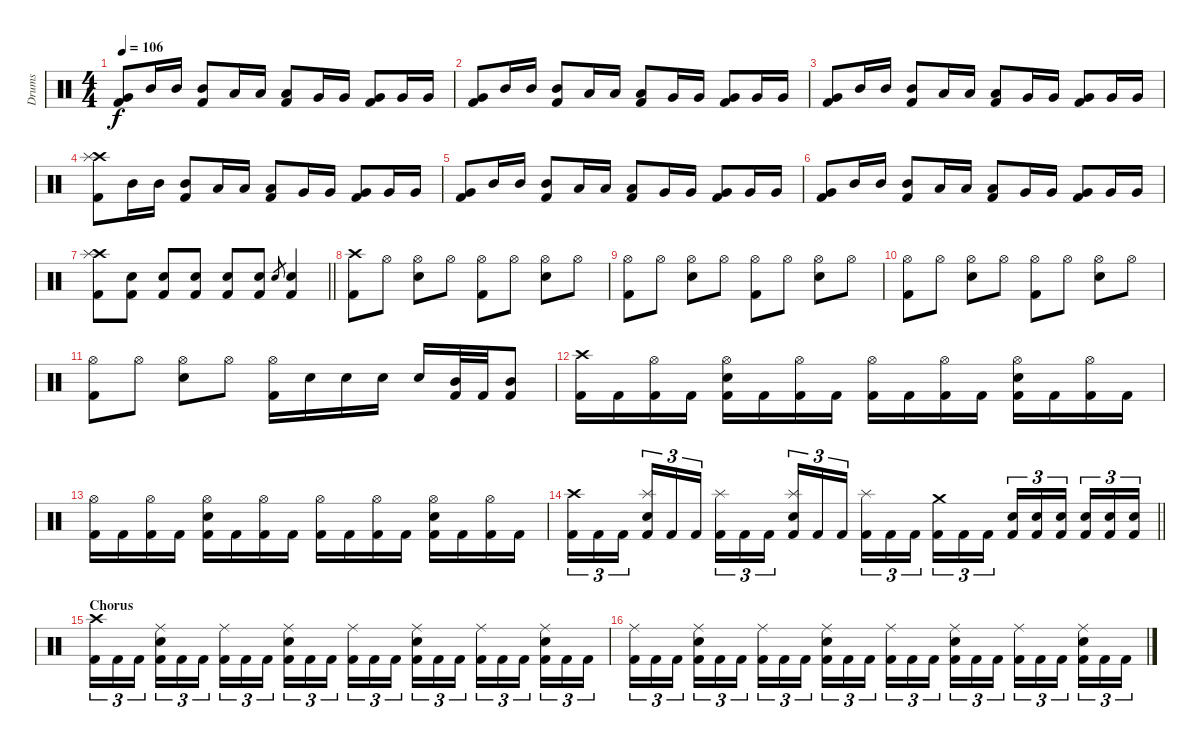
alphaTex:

\track ("Drums" "Drums") {instrument percussion}
\staff {score}
\articulation defaults
\ts (4 4)
\tempo 106
\clef neutral
\ks c
("Very Low Tom (hit)" "Kick (hit) 2").8{dy f} "Mid Tom (hit)".16 "Mid Tom (hit)".16 ("Mid Tom (hit)" "Kick (hit) 2").8 "Low Tom (hit)".16 "Low Tom (hit)".16 ("Low Tom (hit)" "Kick (hit) 2").8 "Very Low Tom (hit)".16 "Very Low Tom (hit)".16 ("Very Low Tom (hit)" "Kick (hit) 2").8 "Very Low Tom (hit)".16 "Very Low Tom (hit)".16 |
("Very Low Tom (hit)" "Kick (hit) 2").8 "Mid Tom (hit)".16 "Mid Tom (hit)".16 ("Mid Tom (hit)" "Kick (hit) 2").8 "Low Tom (hit)".16 "Low Tom (hit)".16 ("Low Tom (hit)" "Kick (hit) 2").8 "Very Low Tom (hit)".16 "Very Low Tom (hit)".16 ("Very Low Tom (hit)" "Kick (hit) 2").8 "Very Low Tom (hit)".16 "Very Low Tom (hit)".16 |
("Very Low Tom (hit)" "Kick (hit) 2").8 "Mid Tom (hit)".16 "Mid Tom (hit)".16 ("Mid Tom (hit)" "Kick (hit) 2").8 "Low Tom (hit)".16 "Low Tom (hit)".16 ("Low Tom (hit)" "Kick (hit) 2").8 "Very Low Tom (hit)".16 "Very Low Tom (hit)".16 ("Very Low Tom (hit)" "Kick (hit) 2").8 "Very Low Tom (hit)".16 "Very Low Tom (hit)".16 |
("Crash high (hit)" "Splash (hit)" "Kick (hit) 2").8 "Mid Tom (hit)".16 "Mid Tom (hit)".16 ("Mid Tom (hit)" "Kick (hit) 2").8 "Low Tom (hit)".16 "Low Tom (hit)".16 ("Low Tom (hit)" "Kick (hit) 2").8 "Very Low Tom (hit)".16 "Very Low Tom (hit)".16 ("Very Low Tom (hit)" "Kick (hit) 2").8 "Very Low Tom (hit)".16 "Very Low Tom (hit)".16 |
("Very Low Tom (hit)" "Kick (hit) 2").8 "Mid Tom (hit)".16 "Mid Tom (hit)".16 ("Mid Tom (hit)" "Kick (hit) 2").8 "Low Tom (hit)".16 "Low Tom (hit)".16 ("Low Tom (hit)" "Kick (hit) 2").8 "Very Low Tom (hit)".16 "Very Low Tom (hit)".16 ("Very Low Tom (hit)" "Kick (hit) 2").8 "Very Low Tom (hit)".16 "Very Low Tom (hit)".16 |
("Very Low Tom (hit)" "Kick (hit) 2").8 "Mid Tom (hit)".16 "Mid Tom (hit)".16 ("Mid Tom (hit)" "Kick (hit) 2").8 "Low Tom (hit)".16 "Low Tom (hit)".16 ("Low Tom (hit)" "Kick (hit) 2").8 "Very Low Tom (hit)".16 "Very Low Tom (hit)".16 ("Very Low Tom (hit)" "Kick (hit) 2").8 "Very Low Tom (hit)".16 "Very Low Tom (hit)".16 |
\barLineRight lightlight
("Crash high (hit)" "Splash (hit)" "Kick (hit) 2").8 ("Electric Snare (hit)" "Kick (hit) 2").8 ("Electric Snare (hit)" "Kick (hit) 2").8 ("Electric Snare (hit)" "Kick (hit) 2").8 ("Electric Snare (hit)" "Kick (hit) 2").8 ("Electric Snare (hit)" "Kick (hit) 2").8 "Electric Snare (hit)".8{gr} ("Electric Snare (hit)" "Kick (hit) 2").4 |
\section ("" "")
("Crash high (hit)" "Kick (hit) 2").8 "Hi-Hat (open)".8 ("Hi-Hat (open)" "Electric Snare (hit)").8 "Hi-Hat (open)".8 ("Hi-Hat (open)" "Kick (hit) 2").8 "Hi-Hat (open)".8 ("Hi-Hat (open)" "Electric Snare (hit)").8 "Hi-Hat (open)".8 |
("Hi-Hat (open)" "Kick (hit) 2").8 "Hi-Hat (open)".8 ("Hi-Hat (open)" "Electric Snare (hit)").8 "Hi-Hat (open)".8 ("Hi-Hat (open)" "Kick (hit) 2").8 "Hi-Hat (open)".8 ("Hi-Hat (open)" "Electric Snare (hit)").8 "Hi-Hat (open)".8 |
("Hi-Hat (open)" "Kick (hit) 2").8 "Hi-Hat (open)".8 ("Hi-Hat (open)" "Electric Snare (hit)").8 "Hi-Hat (open)".8 ("Hi-Hat (open)" "Kick (hit) 2").8 "Hi-Hat (open)".8 ("Hi-Hat (open)" "Electric Snare (hit)").8 "Hi-Hat (open)".8 |
("Hi-Hat (open)" "Kick (hit) 2").8 "Hi-Hat (open)".8 ("Hi-Hat (open)" "Electric Snare (hit)").8 "Hi-Hat (open)".8 ("Hi-Hat (open)" "Kick (hit) 2").16 "Electric Snare (hit)".16 "Electric Snare (hit)".16 "Electric Snare (hit)".16 "Electric Snare (hit)".16 ("Mid Tom (hit)" "Kick (hit) 2").32 "Kick (hit) 2".32 ("Mid Tom (hit)" "Kick (hit) 2").8 |
("Crash high (hit)" "Kick (hit) 2").16 "Kick (hit) 2".16 ("Hi-Hat (open)" "Kick (hit) 2").16 "Kick (hit) 2".16 ("Hi-Hat (open)" "Electric Snare (hit)" "Kick (hit) 2").16 "Kick (hit) 2".16 ("Hi-Hat (open)" "Kick (hit) 2").16 "Kick (hit) 2".16 ("Hi-Hat (open)" "Kick (hit) 2").16 "Kick (hit) 2".16 ("Hi-Hat (open)" "Kick (hit) 2").16 "Kick (hit) 2".16 ("Hi-Hat (open)" "Electric Snare (hit)" "Kick (hit) 2").16 "Kick (hit) 2".16 ("Hi-Hat (open)" "Kick (hit) 2").16 "Kick (hit) 2".16 |
("Hi-Hat (open)" "Kick (hit) 2").16 "Kick (hit) 2".16 ("Hi-Hat (open)" "Kick (hit) 2").16 "Kick (hit) 2".16 ("Hi-Hat (open)" "Electric Snare (hit)" "Kick (hit) 2").16 "Kick (hit) 2".16 ("Hi-Hat (open)" "Kick (hit) 2").16 "Kick (hit) 2".16 ("Hi-Hat (open)" "Kick (hit) 2").16 "Kick (hit) 2".16 ("Hi-Hat (open)" "Kick (hit) 2").16 "Kick (hit) 2".16 ("Hi-Hat (open)" "Electric Snare (hit)" "Kick (hit) 2").16 "Kick (hit) 2".16 ("Hi-Hat (open)" "Kick (hit) 2").16 "Kick (hit) 2".16 |
\barLineRight lightlight
("Crash high (hit)" "Kick (hit) 2").16{tu (3 2)} "Kick (hit) 2".16{tu (3 2)} "Kick (hit) 2".16{tu (3 2)} ("Splash (hit)" "Electric Snare (hit)" "Kick (hit) 2").16{tu (3 2)} "Kick (hit) 2".16{tu (3 2)} "Kick (hit) 2".16{tu (3 2)} ("Splash (hit)" "Kick (hit) 2").16{tu (3 2)} "Kick (hit) 2".16{tu (3 2)} "Kick (hit) 2".16{tu (3 2)} ("Splash (hit)" "Electric Snare (hit)" "Kick (hit) 2").16{tu (3 2)} "Kick (hit) 2".16{tu (3 2)} "Kick (hit) 2".16{tu (3 2)} ("Splash (hit)" "Kick (hit) 2").16{tu (3 2)} "Kick (hit) 2".16{tu (3 2)} "Kick (hit) 2".16{tu (3 2)} ("Crash medium (hit)" "Kick (hit) 2").16{tu (3 2)} "Kick (hit) 2".16{tu (3 2)} "Kick (hit) 2".16{tu (3 2)} ("Electric Snare (hit)" "Kick (hit) 2").16{tu (3 2)} ("Electric Snare (hit)" "Kick (hit) 2").16{tu (3 2)} ("Electric Snare (hit)" "Kick (hit) 2").16{tu (3 2)} ("Electric Snare (hit)" "Kick (hit) 2").16{tu (3 2)} ("Electric Snare (hit)" "Kick (hit) 2").16{tu (3 2)} ("Electric Snare (hit)" "Kick (hit) 2").16{tu (3 2)} |
\section ("" "Chorus")
("Crash high (hit)" "Kick (hit) 2").16{tu (3 2)} "Kick (hit) 2".16{tu (3 2)} "Kick (hit) 2".16{tu (3 2)} ("Ride (middle)" "Electric Snare (hit)" "Kick (hit) 2").16{tu (3 2)} "Kick (hit) 2".16{tu (3 2)} "Kick (hit) 2".16{tu (3 2)} ("Ride (middle)" "Kick (hit) 2").16{tu (3 2)} "Kick (hit) 2".16{tu (3 2)} "Kick (hit) 2".16{tu (3 2)} ("Ride (middle)" "Electric Snare (hit)" "Kick (hit) 2").16{tu (3 2)} "Kick (hit) 2".16{tu (3 2)} "Kick (hit) 2".16{tu (3 2)} ("Ride (middle)" "Kick (hit) 2").16{tu (3 2)} "Kick (hit) 2".16{tu (3 2)} "Kick (hit) 2".16{tu (3 2)} ("Ride (middle)" "Electric Snare (hit)" "Kick (hit) 2").16{tu (3 2)} "Kick (hit) 2".16{tu (3 2)} "Kick (hit) 2".16{tu (3 2)} ("Ride (middle)" "Kick (hit) 2").16{tu (3 2)} "Kick (hit) 2".16{tu (3 2)} "Kick (hit) 2".16{tu (3 2)} ("Ride (middle)" "Electric Snare (hit)" "Kick (hit) 2").16{tu (3 2)} "Kick (hit) 2".16{tu (3 2)} "Kick (hit) 2".16{tu (3 2)} |
("Ride (middle)" "Kick (hit) 2").16{tu (3 2)} "Kick (hit) 2".16{tu (3 2)} "Kick (hit) 2".16{tu (3 2)} ("Ride (middle)" "Electric Snare (hit)" "Kick (hit) 2").16{tu (3 2)} "Kick (hit) 2".16{tu (3 2)} "Kick (hit) 2".16{tu (3 2)} ("Ride (middle)" "Kick (hit) 2").16{tu (3 2)} "Kick (hit) 2".16{tu (3 2)} "Kick (hit) 2".16{tu (3 2)} ("Ride (middle)" "Electric Snare (hit)" "Kick (hit) 2").16{tu (3 2)} "Kick (hit) 2".16{tu (3 2)} "Kick (hit) 2".16{tu (3 2)} ("Ride (middle)" "Kick (hit) 2").16{tu (3 2)} "Kick (hit) 2".16{tu (3 2)} "Kick (hit) 2".16{tu (3 2)} ("Ride (middle)" "Electric Snare (hit)" "Kick (hit) 2").16{tu (3 2)} "Kick (hit) 2".16{tu (3 2)} "Kick (hit) 2".16{tu (3 2)} ("Ride (middle)" "Kick (hit) 2").16{tu (3 2)} "Kick (hit) 2".16{tu (3 2)} "Kick (hit) 2".16{tu (3 2)} ("Ride (middle)" "Electric Snare (hit)" "Kick (hit) 2").16{tu (3 2)} "Kick (hit) 2".16{tu (3 2)} "Kick (hit) 2".16{tu (3 2)}
